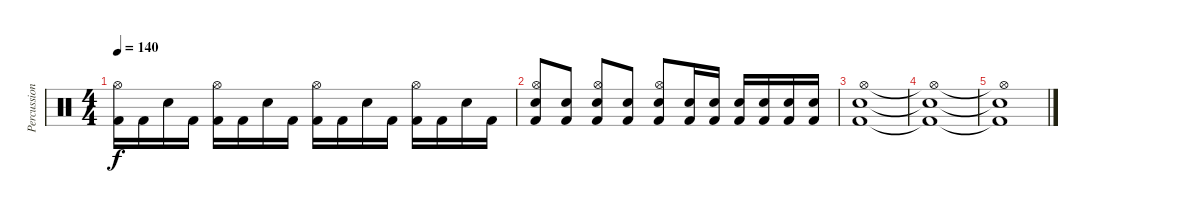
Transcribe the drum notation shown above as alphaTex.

\track ("Percussion" "Percussion") {instrument percussion}
\staff {score}
\articulation defaults
\ts (4 4)
\tempo 140
\clef neutral
\ks c
("Kick (hit) 2" "Hi-Hat (open)").16{dy f} "Kick (hit) 2".16 "Electric Snare (hit)".16 "Kick (hit) 2".16 ("Kick (hit) 2" "Hi-Hat (open)").16 "Kick (hit) 2".16 "Electric Snare (hit)".16 "Kick (hit) 2".16 ("Kick (hit) 2" "Hi-Hat (open)").16 "Kick (hit) 2".16 "Electric Snare (hit)".16 "Kick (hit) 2".16 ("Kick (hit) 2" "Hi-Hat (open)").16 "Kick (hit) 2".16 "Electric Snare (hit)".16 "Kick (hit) 2".16 |
("Kick (hit) 2" "Electric Snare (hit)" "Hi-Hat (open)").8 ("Kick (hit) 2" "Electric Snare (hit)").8 ("Kick (hit) 2" "Electric Snare (hit)" "Hi-Hat (open)").8 ("Kick (hit) 2" "Electric Snare (hit)").8 ("Kick (hit) 2" "Electric Snare (hit)" "Hi-Hat (open)").8 ("Kick (hit) 2" "Electric Snare (hit)").16 ("Kick (hit) 2" "Electric Snare (hit)").16 ("Kick (hit) 2" "Electric Snare (hit)").16 ("Kick (hit) 2" "Electric Snare (hit)").16 ("Kick (hit) 2" "Electric Snare (hit)").16 ("Kick (hit) 2" "Electric Snare (hit)").16 |
("Kick (hit) 2" "Electric Snare (hit)" "Hi-Hat (open)").1 |
("Kick (hit) 2"{t} "Electric Snare (hit)"{t} "Hi-Hat (open)"{t}).1 |
("Kick (hit) 2"{t} "Electric Snare (hit)"{t} "Hi-Hat (open)"{t}).1
